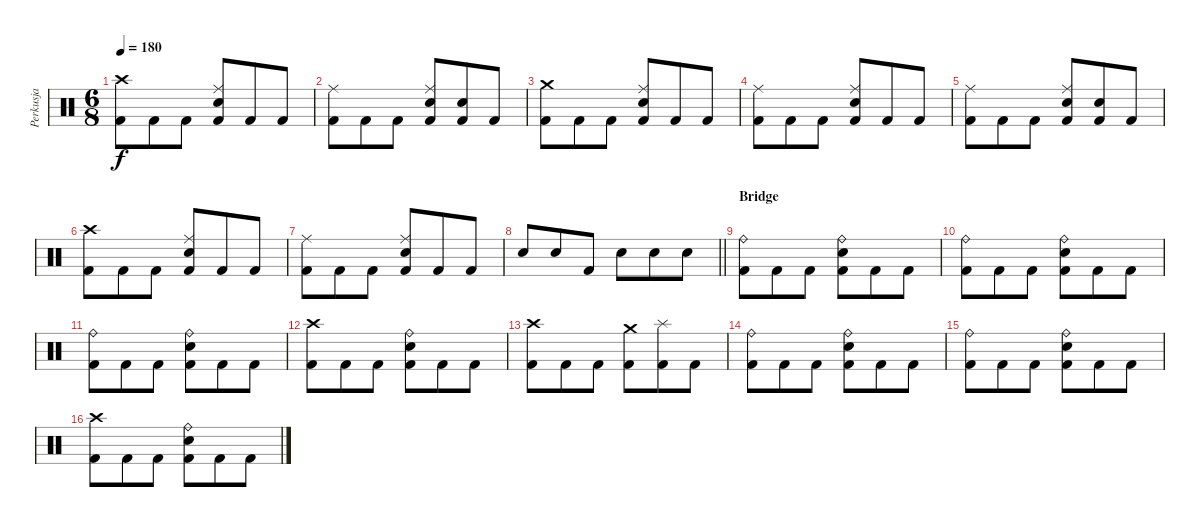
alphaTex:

\track ("Perkusja" "Perkusja") {instrument percussion}
\staff {score}
\articulation defaults
\ts (6 8)
\tempo 180
\clef neutral
\ks c
("Crash high (hit)" "Kick (hit) 2").8{dy f} "Kick (hit) 2".8 "Kick (hit) 2".8 ("Ride (middle)" "Snare (hit) 2" "Kick (hit) 2").8 "Kick (hit) 2".8 "Kick (hit) 2".8 |
("Ride (middle)" "Kick (hit) 2").8 "Kick (hit) 2".8 "Kick (hit) 2".8 ("Ride (middle)" "Snare (hit) 2" "Kick (hit) 2").8 ("Snare (hit) 2" "Kick (hit) 2").8 "Kick (hit) 2".8 |
("Crash medium (hit)" "Kick (hit) 2").8 "Kick (hit) 2".8 "Kick (hit) 2".8 ("Ride (middle)" "Snare (hit) 2" "Kick (hit) 2").8 "Kick (hit) 2".8 "Kick (hit) 2".8 |
("Ride (middle)" "Kick (hit) 2").8 "Kick (hit) 2".8 "Kick (hit) 2".8 ("Ride (middle)" "Snare (hit) 2" "Kick (hit) 2").8 "Kick (hit) 2".8 "Kick (hit) 2".8 |
("Ride (middle)" "Kick (hit) 2").8 "Kick (hit) 2".8 "Kick (hit) 2".8 ("Ride (middle)" "Snare (hit) 2" "Kick (hit) 2").8 ("Snare (hit) 2" "Kick (hit) 2").8 "Kick (hit) 2".8 |
("Crash high (hit)" "Kick (hit) 2").8 "Kick (hit) 2".8 "Kick (hit) 2".8 ("Ride (middle)" "Snare (hit) 2" "Kick (hit) 2").8 "Kick (hit) 2".8 "Kick (hit) 2".8 |
("Ride (middle)" "Kick (hit) 2").8 "Kick (hit) 2".8 "Kick (hit) 2".8 ("Ride (middle)" "Snare (hit) 2" "Kick (hit) 2").8 "Kick (hit) 2".8 "Kick (hit) 2".8 |
\barLineRight lightlight "Snare (hit) 2".8 "Snare (hit) 2".8 "Kick (hit) 2".8 "Snare (hit) 2".8 "Snare (hit) 2".8 "Snare (hit) 2".8
|
\section ("" "Bridge")
("Ride (bell)" "Kick (hit) 2").8 "Kick (hit) 2".8 "Kick (hit) 2".8 ("Ride (bell)" "Snare (hit) 2" "Kick (hit) 2").8 "Kick (hit) 2".8 "Kick (hit) 2".8 |
("Ride (bell)" "Kick (hit) 2").8 "Kick (hit) 2".8 "Kick (hit) 2".8 ("Ride (bell)" "Snare (hit) 2" "Kick (hit) 2").8 "Kick (hit) 2".8 "Kick (hit) 2".8 |
("Ride (bell)" "Kick (hit) 2").8 "Kick (hit) 2".8 "Kick (hit) 2".8 ("Ride (bell)" "Snare (hit) 2" "Kick (hit) 2").8 "Kick (hit) 2".8 "Kick (hit) 2".8 |
("Crash high (hit)" "Kick (hit) 2").8 "Kick (hit) 2".8 "Kick (hit) 2".8 ("Ride (bell)" "Snare (hit) 2" "Kick (hit) 2").8 "Kick (hit) 2".8 "Kick (hit) 2".8 |
("Crash high (hit)" "Kick (hit) 2").8 "Kick (hit) 2".8 "Kick (hit) 2".8 ("Crash medium (hit)" "Kick (hit) 2").8 ("Splash (hit)" "Kick (hit) 2").8 "Kick (hit) 2".8 |
("Ride (bell)" "Kick (hit) 2").8 "Kick (hit) 2".8 "Kick (hit) 2".8 ("Ride (bell)" "Snare (hit) 2" "Kick (hit) 2").8 "Kick (hit) 2".8 "Kick (hit) 2".8 |
("Ride (bell)" "Kick (hit) 2").8 "Kick (hit) 2".8 "Kick (hit) 2".8 ("Ride (bell)" "Snare (hit) 2" "Kick (hit) 2").8 "Kick (hit) 2".8 "Kick (hit) 2".8 |
("Crash high (hit)" "Kick (hit) 2").8 "Kick (hit) 2".8 "Kick (hit) 2".8 ("Ride (bell)" "Snare (hit) 2" "Kick (hit) 2").8 "Kick (hit) 2".8 "Kick (hit) 2".8
